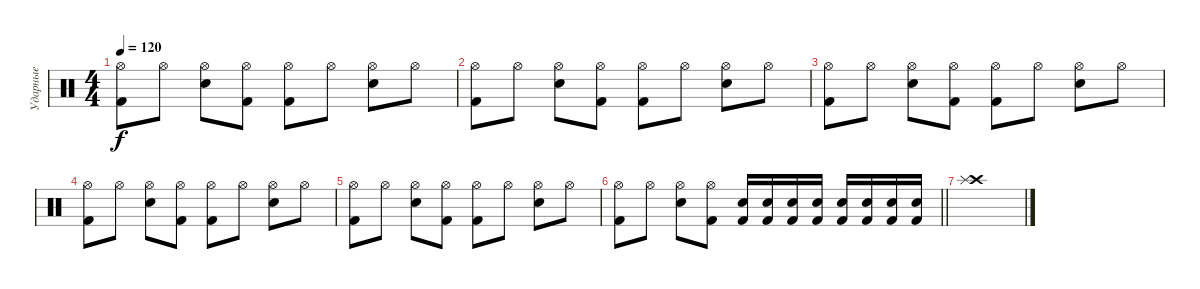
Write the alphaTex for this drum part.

\track ("Ударные" "Ударные") {instrument percussion}
\staff {score}
\articulation defaults
\ts (4 4)
\tempo 120
\clef neutral
\ks c
("Hi-Hat (open)" "Kick (hit) 2").8{dy f} "Hi-Hat (open)".8 ("Hi-Hat (open)" "Snare (hit) 2").8 ("Hi-Hat (open)" "Kick (hit) 2").8 ("Hi-Hat (open)" "Kick (hit) 2").8 "Hi-Hat (open)".8 ("Hi-Hat (open)" "Snare (hit) 2").8 "Hi-Hat (open)".8 |
("Hi-Hat (open)" "Kick (hit) 2").8 "Hi-Hat (open)".8 ("Hi-Hat (open)" "Snare (hit) 2").8 ("Hi-Hat (open)" "Kick (hit) 2").8 ("Hi-Hat (open)" "Kick (hit) 2").8 "Hi-Hat (open)".8 ("Hi-Hat (open)" "Snare (hit) 2").8 "Hi-Hat (open)".8 |
("Hi-Hat (open)" "Kick (hit) 2").8 "Hi-Hat (open)".8 ("Hi-Hat (open)" "Snare (hit) 2").8 ("Hi-Hat (open)" "Kick (hit) 2").8 ("Hi-Hat (open)" "Kick (hit) 2").8 "Hi-Hat (open)".8 ("Hi-Hat (open)" "Snare (hit) 2").8 "Hi-Hat (open)".8 |
("Hi-Hat (open)" "Kick (hit) 2").8 "Hi-Hat (open)".8 ("Hi-Hat (open)" "Snare (hit) 2").8 ("Hi-Hat (open)" "Kick (hit) 2").8 ("Hi-Hat (open)" "Kick (hit) 2").8 "Hi-Hat (open)".8 ("Hi-Hat (open)" "Snare (hit) 2").8 "Hi-Hat (open)".8 |
("Hi-Hat (open)" "Kick (hit) 2").8 "Hi-Hat (open)".8 ("Hi-Hat (open)" "Snare (hit) 2").8 ("Hi-Hat (open)" "Kick (hit) 2").8 ("Hi-Hat (open)" "Kick (hit) 2").8 "Hi-Hat (open)".8 ("Hi-Hat (open)" "Snare (hit) 2").8 "Hi-Hat (open)".8 |
\barLineRight lightlight
("Hi-Hat (open)" "Kick (hit) 2").8 "Hi-Hat (open)".8 ("Hi-Hat (open)" "Snare (hit) 2").8 ("Hi-Hat (open)" "Kick (hit) 2").8 ("Snare (hit) 2" "Kick (hit) 2").16 ("Snare (hit) 2" "Kick (hit) 2").16 ("Snare (hit) 2" "Kick (hit) 2").16 ("Snare (hit) 2" "Kick (hit) 2").16 ("Snare (hit) 2" "Kick (hit) 2").16 ("Snare (hit) 2" "Kick (hit) 2").16 ("Snare (hit) 2" "Kick (hit) 2").16 ("Snare (hit) 2" "Kick (hit) 2").16 |
("Crash high (hit)" "Splash (hit)").1
